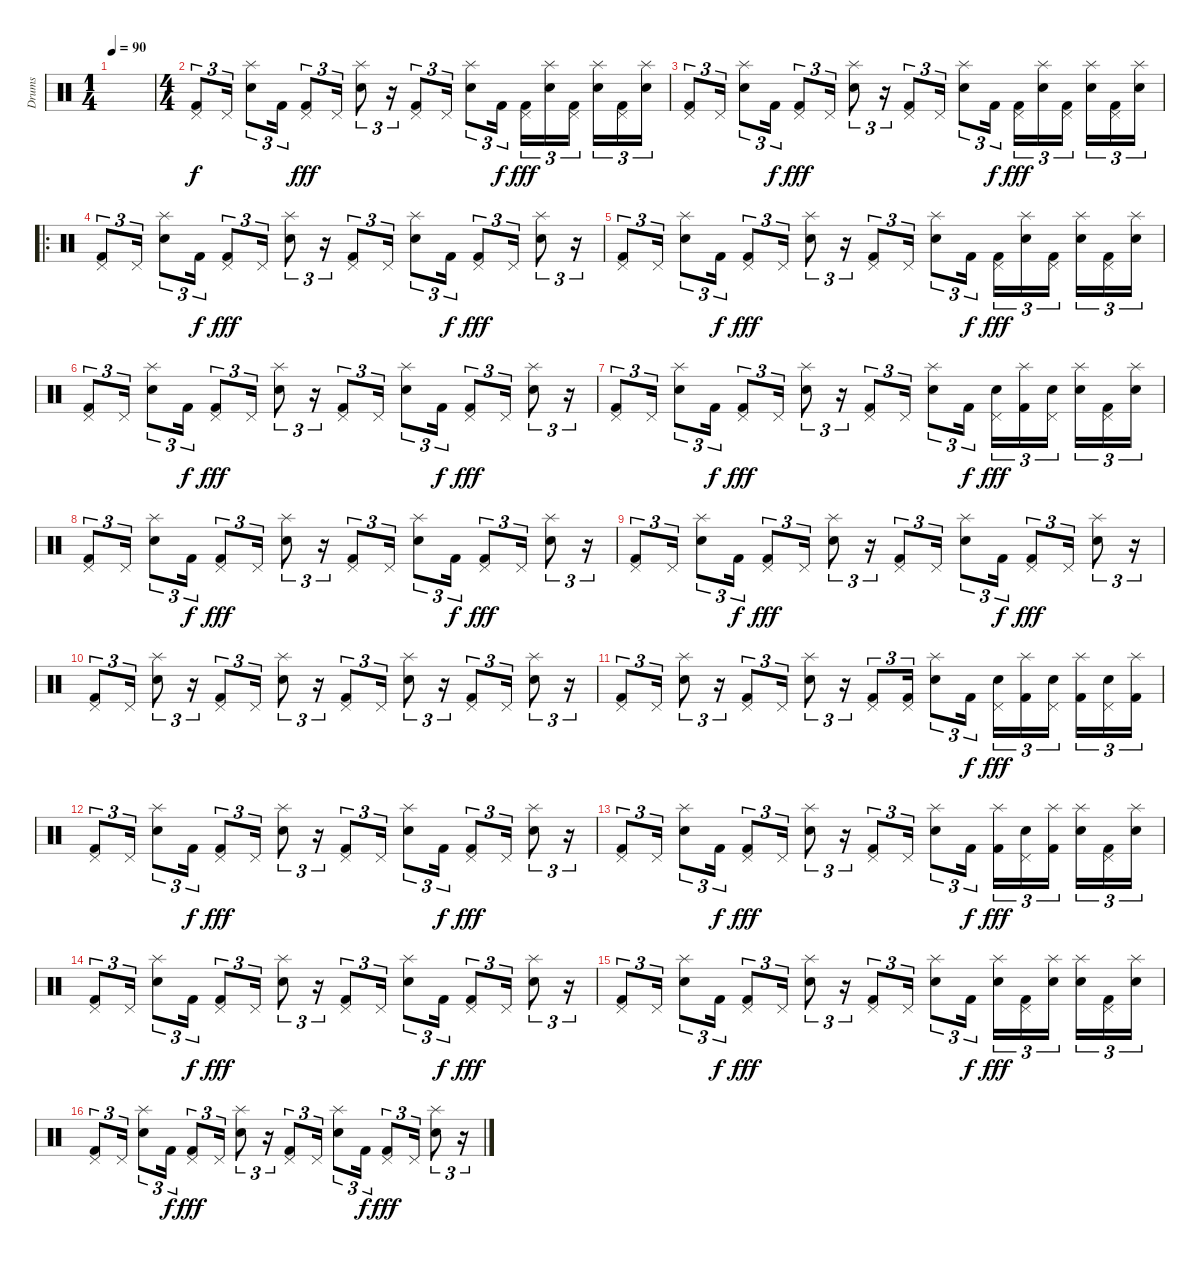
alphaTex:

\track ("Drums" "Drums") {instrument percussion}
\staff {score}
\articulation defaults
\ts (1 4)
\tempo 90
\clef neutral
\ks c
|
\ts (4 4)
("Pedal Hi-Hat (hit)" "Kick (hit) 2").8{tu (3 2)} "Pedal Hi-Hat (hit)".16{tu (3 2)} ("Splash (hit)" "Snare (hit) 2").8{tu (3 2)} "Kick (hit) 2".16{tu (3 2) dy f} ("Pedal Hi-Hat (hit)" "Kick (hit) 2").8{tu (3 2) dy fff} "Pedal Hi-Hat (hit)".16{tu (3 2)} ("Splash (hit)" "Snare (hit) 2").8{tu (3 2)} r.16{tu (3 2)} ("Pedal Hi-Hat (hit)" "Kick (hit) 2").8{tu (3 2)} "Pedal Hi-Hat (hit)".16{tu (3 2)} ("Splash (hit)" "Snare (hit) 2").8{tu (3 2)} "Kick (hit) 2".16{tu (3 2) dy f} ("Pedal Hi-Hat (hit)" "Kick (hit) 2").16{tu (3 2) dy fff} ("Splash (hit)" "Snare (hit) 2").16{tu (3 2)} ("Pedal Hi-Hat (hit)" "Kick (hit) 2").16{tu (3 2)} ("Splash (hit)" "Snare (hit) 2").16{tu (3 2)} ("Pedal Hi-Hat (hit)" "Kick (hit) 2").16{tu (3 2)} ("Splash (hit)" "Snare (hit) 2").16{tu (3 2)} |
("Pedal Hi-Hat (hit)" "Kick (hit) 2").8{tu (3 2)} "Pedal Hi-Hat (hit)".16{tu (3 2)} ("Splash (hit)" "Snare (hit) 2").8{tu (3 2)} "Kick (hit) 2".16{tu (3 2) dy f} ("Pedal Hi-Hat (hit)" "Kick (hit) 2").8{tu (3 2) dy fff} "Pedal Hi-Hat (hit)".16{tu (3 2)} ("Splash (hit)" "Snare (hit) 2").8{tu (3 2)} r.16{tu (3 2)} ("Pedal Hi-Hat (hit)" "Kick (hit) 2").8{tu (3 2)} "Pedal Hi-Hat (hit)".16{tu (3 2)} ("Splash (hit)" "Snare (hit) 2").8{tu (3 2)} "Kick (hit) 2".16{tu (3 2) dy f} ("Pedal Hi-Hat (hit)" "Kick (hit) 2").16{tu (3 2) dy fff} ("Splash (hit)" "Snare (hit) 2").16{tu (3 2)} ("Pedal Hi-Hat (hit)" "Kick (hit) 2").16{tu (3 2)} ("Splash (hit)" "Snare (hit) 2").16{tu (3 2)} ("Pedal Hi-Hat (hit)" "Kick (hit) 2").16{tu (3 2)} ("Splash (hit)" "Snare (hit) 2").16{tu (3 2)} |
\ro
("Pedal Hi-Hat (hit)" "Kick (hit) 2").8{tu (3 2)} "Pedal Hi-Hat (hit)".16{tu (3 2)} ("Splash (hit)" "Snare (hit) 2").8{tu (3 2)} "Kick (hit) 2".16{tu (3 2) dy f} ("Pedal Hi-Hat (hit)" "Kick (hit) 2").8{tu (3 2) dy fff} "Pedal Hi-Hat (hit)".16{tu (3 2)} ("Splash (hit)" "Snare (hit) 2").8{tu (3 2)} r.16{tu (3 2)} ("Pedal Hi-Hat (hit)" "Kick (hit) 2").8{tu (3 2)} "Pedal Hi-Hat (hit)".16{tu (3 2)} ("Splash (hit)" "Snare (hit) 2").8{tu (3 2)} "Kick (hit) 2".16{tu (3 2) dy f} ("Pedal Hi-Hat (hit)" "Kick (hit) 2").8{tu (3 2) dy fff} "Pedal Hi-Hat (hit)".16{tu (3 2)} ("Splash (hit)" "Snare (hit) 2").8{tu (3 2)} r.16{tu (3 2)} |
("Pedal Hi-Hat (hit)" "Kick (hit) 2").8{tu (3 2)} "Pedal Hi-Hat (hit)".16{tu (3 2)} ("Splash (hit)" "Snare (hit) 2").8{tu (3 2)} "Kick (hit) 2".16{tu (3 2) dy f} ("Pedal Hi-Hat (hit)" "Kick (hit) 2").8{tu (3 2) dy fff} "Pedal Hi-Hat (hit)".16{tu (3 2)} ("Splash (hit)" "Snare (hit) 2").8{tu (3 2)} r.16{tu (3 2)} ("Pedal Hi-Hat (hit)" "Kick (hit) 2").8{tu (3 2)} "Pedal Hi-Hat (hit)".16{tu (3 2)} ("Splash (hit)" "Snare (hit) 2").8{tu (3 2)} "Kick (hit) 2".16{tu (3 2) dy f} ("Pedal Hi-Hat (hit)" "Kick (hit) 2").16{tu (3 2) dy fff} ("Splash (hit)" "Snare (hit) 2").16{tu (3 2)} ("Pedal Hi-Hat (hit)" "Kick (hit) 2").16{tu (3 2)} ("Splash (hit)" "Snare (hit) 2").16{tu (3 2)} ("Pedal Hi-Hat (hit)" "Kick (hit) 2").16{tu (3 2)} ("Splash (hit)" "Snare (hit) 2").16{tu (3 2)} |
("Pedal Hi-Hat (hit)" "Kick (hit) 2").8{tu (3 2)} "Pedal Hi-Hat (hit)".16{tu (3 2)} ("Splash (hit)" "Snare (hit) 2").8{tu (3 2)} "Kick (hit) 2".16{tu (3 2) dy f} ("Pedal Hi-Hat (hit)" "Kick (hit) 2").8{tu (3 2) dy fff} "Pedal Hi-Hat (hit)".16{tu (3 2)} ("Splash (hit)" "Snare (hit) 2").8{tu (3 2)} r.16{tu (3 2)} ("Pedal Hi-Hat (hit)" "Kick (hit) 2").8{tu (3 2)} "Pedal Hi-Hat (hit)".16{tu (3 2)} ("Splash (hit)" "Snare (hit) 2").8{tu (3 2)} "Kick (hit) 2".16{tu (3 2) dy f} ("Pedal Hi-Hat (hit)" "Kick (hit) 2").8{tu (3 2) dy fff} "Pedal Hi-Hat (hit)".16{tu (3 2)} ("Splash (hit)" "Snare (hit) 2").8{tu (3 2)} r.16{tu (3 2)} |
("Pedal Hi-Hat (hit)" "Kick (hit) 2").8{tu (3 2)} "Pedal Hi-Hat (hit)".16{tu (3 2)} ("Splash (hit)" "Snare (hit) 2").8{tu (3 2)} "Kick (hit) 2".16{tu (3 2) dy f} ("Pedal Hi-Hat (hit)" "Kick (hit) 2").8{tu (3 2) dy fff} "Pedal Hi-Hat (hit)".16{tu (3 2)} ("Splash (hit)" "Snare (hit) 2").8{tu (3 2)} r.16{tu (3 2)} ("Pedal Hi-Hat (hit)" "Kick (hit) 2").8{tu (3 2)} "Pedal Hi-Hat (hit)".16{tu (3 2)} ("Splash (hit)" "Snare (hit) 2").8{tu (3 2)} "Kick (hit) 2".16{tu (3 2) dy f} ("Pedal Hi-Hat (hit)" "Snare (hit) 2").16{tu (3 2) dy fff} ("Splash (hit)" "Kick (hit) 2").16{tu (3 2)} ("Pedal Hi-Hat (hit)" "Snare (hit) 2").16{tu (3 2)} ("Splash (hit)" "Snare (hit) 2").16{tu (3 2)} ("Pedal Hi-Hat (hit)" "Kick (hit) 2").16{tu (3 2)} ("Splash (hit)" "Snare (hit) 2").16{tu (3 2)} |
("Pedal Hi-Hat (hit)" "Kick (hit) 2").8{tu (3 2)} "Pedal Hi-Hat (hit)".16{tu (3 2)} ("Splash (hit)" "Snare (hit) 2").8{tu (3 2)} "Kick (hit) 2".16{tu (3 2) dy f} ("Pedal Hi-Hat (hit)" "Kick (hit) 2").8{tu (3 2) dy fff} "Pedal Hi-Hat (hit)".16{tu (3 2)} ("Splash (hit)" "Snare (hit) 2").8{tu (3 2)} r.16{tu (3 2)} ("Pedal Hi-Hat (hit)" "Kick (hit) 2").8{tu (3 2)} "Pedal Hi-Hat (hit)".16{tu (3 2)} ("Splash (hit)" "Snare (hit) 2").8{tu (3 2)} "Kick (hit) 2".16{tu (3 2) dy f} ("Pedal Hi-Hat (hit)" "Kick (hit) 2").8{tu (3 2) dy fff} "Pedal Hi-Hat (hit)".16{tu (3 2)} ("Splash (hit)" "Snare (hit) 2").8{tu (3 2)} r.16{tu (3 2)} |
("Pedal Hi-Hat (hit)" "Kick (hit) 2").8{tu (3 2)} "Pedal Hi-Hat (hit)".16{tu (3 2)} ("Splash (hit)" "Snare (hit) 2").8{tu (3 2)} "Kick (hit) 2".16{tu (3 2) dy f} ("Pedal Hi-Hat (hit)" "Kick (hit) 2").8{tu (3 2) dy fff} "Pedal Hi-Hat (hit)".16{tu (3 2)} ("Splash (hit)" "Snare (hit) 2").8{tu (3 2)} r.16{tu (3 2)} ("Pedal Hi-Hat (hit)" "Kick (hit) 2").8{tu (3 2)} "Pedal Hi-Hat (hit)".16{tu (3 2)} ("Splash (hit)" "Snare (hit) 2").8{tu (3 2)} "Kick (hit) 2".16{tu (3 2) dy f} ("Pedal Hi-Hat (hit)" "Kick (hit) 2").8{tu (3 2) dy fff} "Pedal Hi-Hat (hit)".16{tu (3 2)} ("Splash (hit)" "Snare (hit) 2").8{tu (3 2)} r.16{tu (3 2)} |
("Pedal Hi-Hat (hit)" "Kick (hit) 2").8{tu (3 2)} "Pedal Hi-Hat (hit)".16{tu (3 2)} ("Splash (hit)" "Snare (hit) 2").8{tu (3 2)} r.16{tu (3 2)} ("Pedal Hi-Hat (hit)" "Kick (hit) 2").8{tu (3 2)} "Pedal Hi-Hat (hit)".16{tu (3 2)} ("Splash (hit)" "Snare (hit) 2").8{tu (3 2)} r.16{tu (3 2)} ("Pedal Hi-Hat (hit)" "Kick (hit) 2").8{tu (3 2)} "Pedal Hi-Hat (hit)".16{tu (3 2)} ("Splash (hit)" "Snare (hit) 2").8{tu (3 2)} r.16{tu (3 2)} ("Pedal Hi-Hat (hit)" "Kick (hit) 2").8{tu (3 2)} "Pedal Hi-Hat (hit)".16{tu (3 2)} ("Splash (hit)" "Snare (hit) 2").8{tu (3 2)} r.16{tu (3 2)} |
("Pedal Hi-Hat (hit)" "Kick (hit) 2").8{tu (3 2)} "Pedal Hi-Hat (hit)".16{tu (3 2)} ("Splash (hit)" "Snare (hit) 2").8{tu (3 2)} r.16{tu (3 2)} ("Pedal Hi-Hat (hit)" "Kick (hit) 2").8{tu (3 2)} "Pedal Hi-Hat (hit)".16{tu (3 2)} ("Splash (hit)" "Snare (hit) 2").8{tu (3 2)} r.16{tu (3 2)} ("Pedal Hi-Hat (hit)" "Kick (hit) 2").8{tu (3 2)} ("Pedal Hi-Hat (hit)" "Kick (hit) 2").16{tu (3 2)} ("Splash (hit)" "Snare (hit) 2").8{tu (3 2)} "Kick (hit) 2".16{tu (3 2) dy f} ("Pedal Hi-Hat (hit)" "Snare (hit) 2").16{tu (3 2) dy fff} ("Splash (hit)" "Kick (hit) 2").16{tu (3 2)} ("Pedal Hi-Hat (hit)" "Snare (hit) 2").16{tu (3 2)} ("Splash (hit)" "Kick (hit) 2").16{tu (3 2)} ("Pedal Hi-Hat (hit)" "Snare (hit) 2").16{tu (3 2)} ("Splash (hit)" "Kick (hit) 2").16{tu (3 2)} |
("Pedal Hi-Hat (hit)" "Kick (hit) 2").8{tu (3 2)} "Pedal Hi-Hat (hit)".16{tu (3 2)} ("Splash (hit)" "Snare (hit) 2").8{tu (3 2)} "Kick (hit) 2".16{tu (3 2) dy f} ("Pedal Hi-Hat (hit)" "Kick (hit) 2").8{tu (3 2) dy fff} "Pedal Hi-Hat (hit)".16{tu (3 2)} ("Splash (hit)" "Snare (hit) 2").8{tu (3 2)} r.16{tu (3 2)} ("Pedal Hi-Hat (hit)" "Kick (hit) 2").8{tu (3 2)} "Pedal Hi-Hat (hit)".16{tu (3 2)} ("Splash (hit)" "Snare (hit) 2").8{tu (3 2)} "Kick (hit) 2".16{tu (3 2) dy f} ("Pedal Hi-Hat (hit)" "Kick (hit) 2").8{tu (3 2) dy fff} "Pedal Hi-Hat (hit)".16{tu (3 2)} ("Splash (hit)" "Snare (hit) 2").8{tu (3 2)} r.16{tu (3 2)} |
("Pedal Hi-Hat (hit)" "Kick (hit) 2").8{tu (3 2)} "Pedal Hi-Hat (hit)".16{tu (3 2)} ("Splash (hit)" "Snare (hit) 2").8{tu (3 2)} "Kick (hit) 2".16{tu (3 2) dy f} ("Pedal Hi-Hat (hit)" "Kick (hit) 2").8{tu (3 2) dy fff} "Pedal Hi-Hat (hit)".16{tu (3 2)} ("Splash (hit)" "Snare (hit) 2").8{tu (3 2)} r.16{tu (3 2)} ("Pedal Hi-Hat (hit)" "Kick (hit) 2").8{tu (3 2)} "Pedal Hi-Hat (hit)".16{tu (3 2)} ("Splash (hit)" "Snare (hit) 2").8{tu (3 2)} "Kick (hit) 2".16{tu (3 2) dy f} ("Splash (hit)" "Kick (hit) 2").16{tu (3 2) dy fff} ("Pedal Hi-Hat (hit)" "Snare (hit) 2").16{tu (3 2)} ("Splash (hit)" "Kick (hit) 2").16{tu (3 2)} ("Splash (hit)" "Snare (hit) 2").16{tu (3 2)} ("Pedal Hi-Hat (hit)" "Kick (hit) 2").16{tu (3 2)} ("Splash (hit)" "Snare (hit) 2").16{tu (3 2)} |
("Pedal Hi-Hat (hit)" "Kick (hit) 2").8{tu (3 2)} "Pedal Hi-Hat (hit)".16{tu (3 2)} ("Splash (hit)" "Snare (hit) 2").8{tu (3 2)} "Kick (hit) 2".16{tu (3 2) dy f} ("Pedal Hi-Hat (hit)" "Kick (hit) 2").8{tu (3 2) dy fff} "Pedal Hi-Hat (hit)".16{tu (3 2)} ("Splash (hit)" "Snare (hit) 2").8{tu (3 2)} r.16{tu (3 2)} ("Pedal Hi-Hat (hit)" "Kick (hit) 2").8{tu (3 2)} "Pedal Hi-Hat (hit)".16{tu (3 2)} ("Splash (hit)" "Snare (hit) 2").8{tu (3 2)} "Kick (hit) 2".16{tu (3 2) dy f} ("Pedal Hi-Hat (hit)" "Kick (hit) 2").8{tu (3 2) dy fff} "Pedal Hi-Hat (hit)".16{tu (3 2)} ("Splash (hit)" "Snare (hit) 2").8{tu (3 2)} r.16{tu (3 2)} |
("Pedal Hi-Hat (hit)" "Kick (hit) 2").8{tu (3 2)} "Pedal Hi-Hat (hit)".16{tu (3 2)} ("Splash (hit)" "Snare (hit) 2").8{tu (3 2)} "Kick (hit) 2".16{tu (3 2) dy f} ("Pedal Hi-Hat (hit)" "Kick (hit) 2").8{tu (3 2) dy fff} "Pedal Hi-Hat (hit)".16{tu (3 2)} ("Splash (hit)" "Snare (hit) 2").8{tu (3 2)} r.16{tu (3 2)} ("Pedal Hi-Hat (hit)" "Kick (hit) 2").8{tu (3 2)} "Pedal Hi-Hat (hit)".16{tu (3 2)} ("Splash (hit)" "Snare (hit) 2").8{tu (3 2)} "Kick (hit) 2".16{tu (3 2) dy f} ("Splash (hit)" "Snare (hit) 2").16{tu (3 2) dy fff} ("Pedal Hi-Hat (hit)" "Kick (hit) 2").16{tu (3 2)} ("Splash (hit)" "Snare (hit) 2").16{tu (3 2)} ("Splash (hit)" "Snare (hit) 2").16{tu (3 2)} ("Pedal Hi-Hat (hit)" "Kick (hit) 2").16{tu (3 2)} ("Splash (hit)" "Snare (hit) 2").16{tu (3 2)} |
("Pedal Hi-Hat (hit)" "Kick (hit) 2").8{tu (3 2)} "Pedal Hi-Hat (hit)".16{tu (3 2)} ("Splash (hit)" "Snare (hit) 2").8{tu (3 2)} "Kick (hit) 2".16{tu (3 2) dy f} ("Pedal Hi-Hat (hit)" "Kick (hit) 2").8{tu (3 2) dy fff} "Pedal Hi-Hat (hit)".16{tu (3 2)} ("Splash (hit)" "Snare (hit) 2").8{tu (3 2)} r.16{tu (3 2)} ("Pedal Hi-Hat (hit)" "Kick (hit) 2").8{tu (3 2)} "Pedal Hi-Hat (hit)".16{tu (3 2)} ("Splash (hit)" "Snare (hit) 2").8{tu (3 2)} "Kick (hit) 2".16{tu (3 2) dy f} ("Pedal Hi-Hat (hit)" "Kick (hit) 2").8{tu (3 2) dy fff} "Pedal Hi-Hat (hit)".16{tu (3 2)} ("Splash (hit)" "Snare (hit) 2").8{tu (3 2)} r.16{tu (3 2)}
